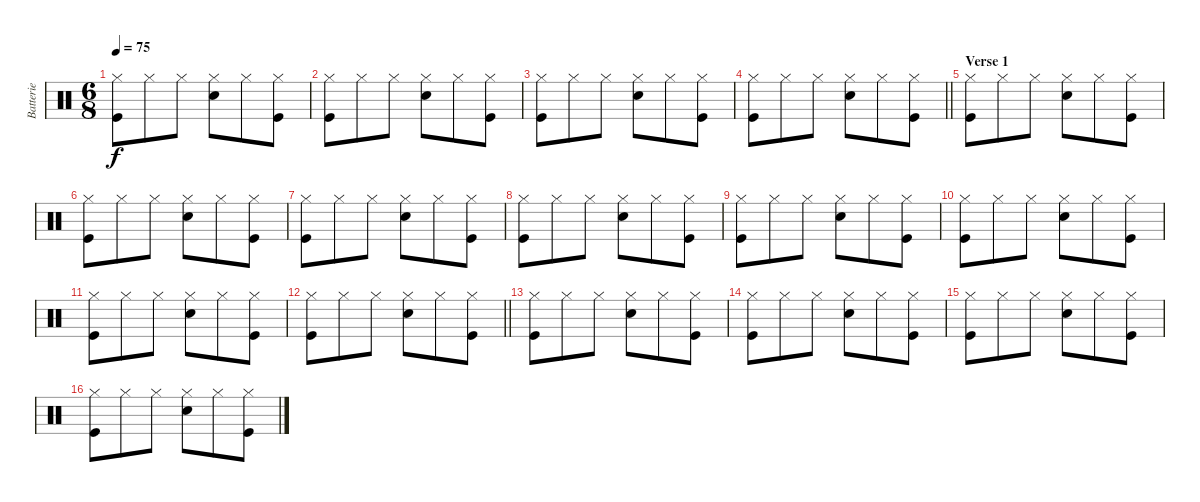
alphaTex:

\track ("Batterie" "Batterie") {instrument percussion}
\staff {score}
\articulation defaults
\ts (6 8)
\tempo 75
\clef neutral
\ks c
("Hi-Hat (closed)" "Kick (hit)").8{dy f} "Hi-Hat (closed)".8 "Hi-Hat (closed)".8 ("Snare (hit) 2" "Hi-Hat (closed)").8 "Hi-Hat (closed)".8 ("Kick (hit)" "Hi-Hat (closed)").8 |
("Hi-Hat (closed)" "Kick (hit)").8 "Hi-Hat (closed)".8 "Hi-Hat (closed)".8 ("Snare (hit) 2" "Hi-Hat (closed)").8 "Hi-Hat (closed)".8 ("Kick (hit)" "Hi-Hat (closed)").8 |
("Hi-Hat (closed)" "Kick (hit)").8 "Hi-Hat (closed)".8 "Hi-Hat (closed)".8 ("Snare (hit) 2" "Hi-Hat (closed)").8 "Hi-Hat (closed)".8 ("Kick (hit)" "Hi-Hat (closed)").8 |
\barLineRight lightlight
("Hi-Hat (closed)" "Kick (hit)").8 "Hi-Hat (closed)".8 "Hi-Hat (closed)".8 ("Snare (hit) 2" "Hi-Hat (closed)").8 "Hi-Hat (closed)".8 ("Kick (hit)" "Hi-Hat (closed)").8 |
\section ("" "Verse 1")
("Hi-Hat (closed)" "Kick (hit)").8 "Hi-Hat (closed)".8 "Hi-Hat (closed)".8 ("Snare (hit) 2" "Hi-Hat (closed)").8 "Hi-Hat (closed)".8 ("Kick (hit)" "Hi-Hat (closed)").8 |
("Hi-Hat (closed)" "Kick (hit)").8 "Hi-Hat (closed)".8 "Hi-Hat (closed)".8 ("Snare (hit) 2" "Hi-Hat (closed)").8 "Hi-Hat (closed)".8 ("Kick (hit)" "Hi-Hat (closed)").8 |
("Hi-Hat (closed)" "Kick (hit)").8 "Hi-Hat (closed)".8 "Hi-Hat (closed)".8 ("Snare (hit) 2" "Hi-Hat (closed)").8 "Hi-Hat (closed)".8 ("Kick (hit)" "Hi-Hat (closed)").8 |
("Hi-Hat (closed)" "Kick (hit)").8 "Hi-Hat (closed)".8 "Hi-Hat (closed)".8 ("Snare (hit) 2" "Hi-Hat (closed)").8 "Hi-Hat (closed)".8 ("Kick (hit)" "Hi-Hat (closed)").8 |
("Hi-Hat (closed)" "Kick (hit)").8 "Hi-Hat (closed)".8 "Hi-Hat (closed)".8 ("Snare (hit) 2" "Hi-Hat (closed)").8 "Hi-Hat (closed)".8 ("Kick (hit)" "Hi-Hat (closed)").8 |
("Hi-Hat (closed)" "Kick (hit)").8 "Hi-Hat (closed)".8 "Hi-Hat (closed)".8 ("Snare (hit) 2" "Hi-Hat (closed)").8 "Hi-Hat (closed)".8 ("Kick (hit)" "Hi-Hat (closed)").8 |
("Hi-Hat (closed)" "Kick (hit)").8 "Hi-Hat (closed)".8 "Hi-Hat (closed)".8 ("Snare (hit) 2" "Hi-Hat (closed)").8 "Hi-Hat (closed)".8 ("Kick (hit)" "Hi-Hat (closed)").8 |
\barLineRight lightlight
("Hi-Hat (closed)" "Kick (hit)").8 "Hi-Hat (closed)".8 "Hi-Hat (closed)".8 ("Snare (hit) 2" "Hi-Hat (closed)").8 "Hi-Hat (closed)".8 ("Kick (hit)" "Hi-Hat (closed)").8 |
("Hi-Hat (closed)" "Kick (hit)").8 "Hi-Hat (closed)".8 "Hi-Hat (closed)".8 ("Snare (hit) 2" "Hi-Hat (closed)").8 "Hi-Hat (closed)".8 ("Kick (hit)" "Hi-Hat (closed)").8 |
("Hi-Hat (closed)" "Kick (hit)").8 "Hi-Hat (closed)".8 "Hi-Hat (closed)".8 ("Snare (hit) 2" "Hi-Hat (closed)").8 "Hi-Hat (closed)".8 ("Kick (hit)" "Hi-Hat (closed)").8 |
("Hi-Hat (closed)" "Kick (hit)").8 "Hi-Hat (closed)".8 "Hi-Hat (closed)".8 ("Snare (hit) 2" "Hi-Hat (closed)").8 "Hi-Hat (closed)".8 ("Kick (hit)" "Hi-Hat (closed)").8 |
("Hi-Hat (closed)" "Kick (hit)").8 "Hi-Hat (closed)".8 "Hi-Hat (closed)".8 ("Snare (hit) 2" "Hi-Hat (closed)").8 "Hi-Hat (closed)".8 ("Kick (hit)" "Hi-Hat (closed)").8
